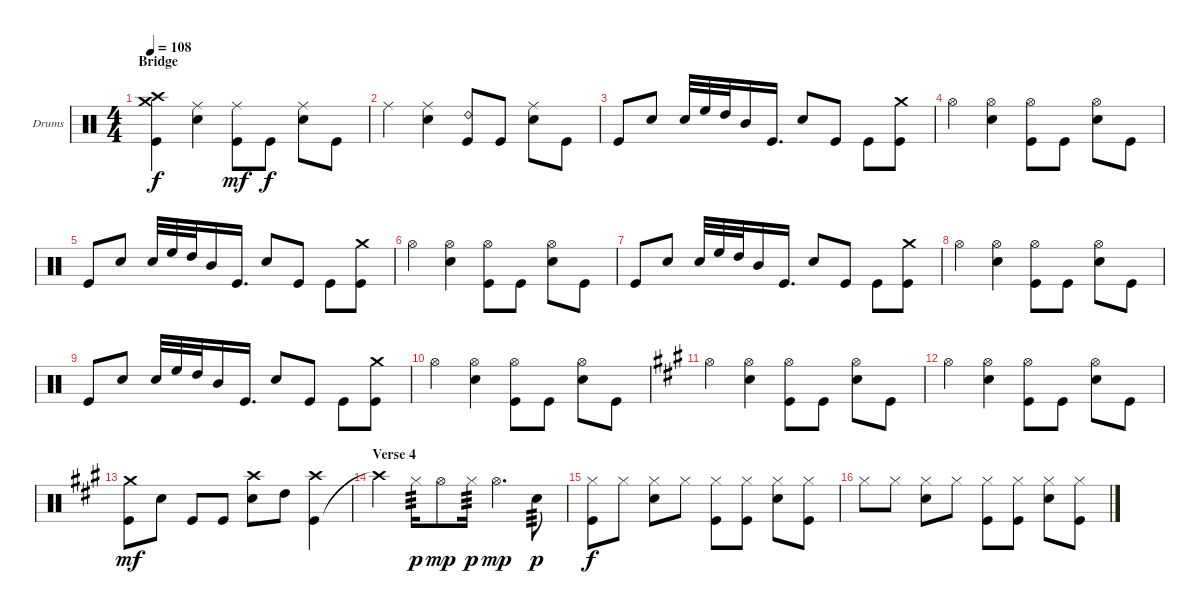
\defaultSystemsLayout 4
\bracketExtendMode groupsimilarinstruments
\firstSystemTrackNameOrientation horizontal
\otherSystemsTrackNameOrientation horizontal
\track ("Drums" "Drums") {instrument percussion}
\staff {score}
\articulation defaults
\ts (4 4)
\section ("" "Bridge")
\tempo 108
\clef neutral
\ks c
("Kick (hit)" "Crash high (hit)" "Crash medium (hit)").4{dy f} ("Snare (hit) 2" "Ride (middle)").4 ("Kick (hit)" "Ride (middle)").8{dy mf} "Kick (hit)".8{dy f} ("Snare (hit) 2" "Ride (middle)").8 "Kick (hit)".8 |
"Ride (middle)".4 ("Snare (hit) 2" "Ride (middle)").4 ("Kick (hit)" "Ride (bell) 2").8 "Kick (hit)".8 ("Snare (hit) 2" "Ride (middle)").8 "Kick (hit)".8 |
"Kick (hit)".8 "Snare (hit) 2".8 "Snare (hit) 2".32 "High Floor Tom (hit)".32 "High Tom (hit)".32 "Mid Tom (hit)".16 "Kick (hit)".16{d} "Snare (hit) 2".8 "Kick (hit)".8 "Kick (hit)".8 ("Kick (hit)" "Crash medium (hit)").8 |
"Hi-Hat (open)".4 ("Snare (hit) 2" "Hi-Hat (open)").4 ("Kick (hit)" "Hi-Hat (open)").8 "Kick (hit)".8 ("Snare (hit) 2" "Hi-Hat (open)").8 "Kick (hit)".8 |
"Kick (hit)".8 "Snare (hit) 2".8 "Snare (hit) 2".32 "High Floor Tom (hit)".32 "High Tom (hit)".32 "Mid Tom (hit)".16 "Kick (hit)".16{d} "Snare (hit) 2".8 "Kick (hit)".8 "Kick (hit)".8 ("Kick (hit)" "Crash medium (hit)").8 |
"Hi-Hat (open)".4 ("Snare (hit) 2" "Hi-Hat (open)").4 ("Kick (hit)" "Hi-Hat (open)").8 "Kick (hit)".8 ("Snare (hit) 2" "Hi-Hat (open)").8 "Kick (hit)".8 |
"Kick (hit)".8 "Snare (hit) 2".8 "Snare (hit) 2".32 "High Floor Tom (hit)".32 "High Tom (hit)".32 "Mid Tom (hit)".16 "Kick (hit)".16{d} "Snare (hit) 2".8 "Kick (hit)".8 "Kick (hit)".8 ("Kick (hit)" "Crash medium (hit)").8 |
"Hi-Hat (open)".4 ("Snare (hit) 2" "Hi-Hat (open)").4 ("Kick (hit)" "Hi-Hat (open)").8 "Kick (hit)".8 ("Snare (hit) 2" "Hi-Hat (open)").8 "Kick (hit)".8 |
"Kick (hit)".8 "Snare (hit) 2".8 "Snare (hit) 2".32 "High Floor Tom (hit)".32 "High Tom (hit)".32 "Mid Tom (hit)".16 "Kick (hit)".16{d} "Snare (hit) 2".8 "Kick (hit)".8 "Kick (hit)".8 ("Kick (hit)" "Crash medium (hit)").8 |
"Hi-Hat (open)".4 ("Snare (hit) 2" "Hi-Hat (open)").4 ("Kick (hit)" "Hi-Hat (open)").8 "Kick (hit)".8 ("Snare (hit) 2" "Hi-Hat (open)").8 "Kick (hit)".8 |
\ks a "Hi-Hat (open)".4
("Snare (hit) 2" "Hi-Hat (open)").4 ("Kick (hit)" "Hi-Hat (open)").8 "Kick (hit)".8 ("Snare (hit) 2" "Hi-Hat (open)").8 "Kick (hit)".8 |
"Hi-Hat (open)".4 ("Snare (hit) 2" "Hi-Hat (open)").4 ("Kick (hit)" "Hi-Hat (open)").8 "Kick (hit)".8 ("Snare (hit) 2" "Hi-Hat (open)").8 "Kick (hit)".8 |
("Kick (hit)" "Crash medium (hit)").8{dy mf} "Snare (hit) 2".8 "Kick (hit)".8 "Kick (hit)".8 ("Snare (hit) 2" "Crash high (hit)").8 "High Tom (hit)".8 ("Kick (hit)" "Crash high (hit)").4 |
\section ("" "Verse 4")
"Crash high (hit)"{t}.4 "Hi-Hat (closed)".16{tp 3 dy p} "Hi-Hat (open)".8{dy mp} "Hi-Hat (closed)".16{tp 3 dy p} "Hi-Hat (open)".4{d dy mp} "Snare (hit) 2".8{tp 3 dy p} |
("Kick (hit)" "Hi-Hat (closed)").8{dy f} "Hi-Hat (closed)".8 ("Snare (hit) 2" "Hi-Hat (closed)").8 "Hi-Hat (closed)".8 ("Kick (hit)" "Hi-Hat (closed)").8 ("Hi-Hat (closed)" "Kick (hit)").8 ("Hi-Hat (closed)" "Snare (hit) 2").8 ("Kick (hit)" "Hi-Hat (closed)").8 |
"Hi-Hat (closed)".8 "Hi-Hat (closed)".8 ("Snare (hit) 2" "Hi-Hat (closed)").8 "Hi-Hat (closed)".8 ("Kick (hit)" "Hi-Hat (closed)").8 ("Kick (hit)" "Hi-Hat (closed)").8 ("Snare (hit) 2" "Hi-Hat (closed)").8 ("Kick (hit)" "Hi-Hat (closed)").8
